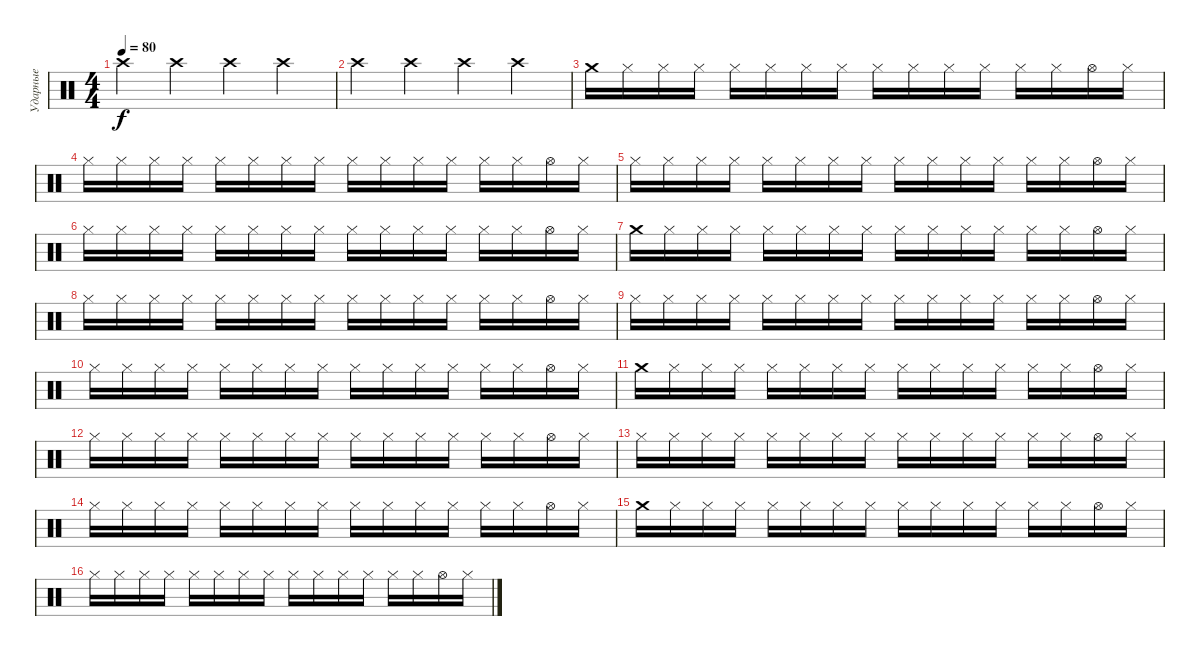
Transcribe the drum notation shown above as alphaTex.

\track ("Ударные" "Ударные") {instrument percussion}
\staff {score}
\articulation defaults
\ts (4 4)
\tempo 80
\clef neutral
\ks c "Crash high (hit)".4{dy f} "Crash high (hit)".4 "Crash high (hit)".4 "Crash high (hit)".4
|
"Crash high (hit)".4 "Crash high (hit)".4 "Crash high (hit)".4 "Crash high (hit)".4 |
"Crash medium (hit)".16 "Hi-Hat (closed)".16 "Hi-Hat (closed)".16 "Hi-Hat (closed)".16 "Hi-Hat (closed)".16 "Hi-Hat (closed)".16 "Hi-Hat (closed)".16 "Hi-Hat (closed)".16 "Hi-Hat (closed)".16 "Hi-Hat (closed)".16 "Hi-Hat (closed)".16 "Hi-Hat (closed)".16 "Hi-Hat (closed)".16 "Hi-Hat (closed)".16 "Hi-Hat (open)".16 "Hi-Hat (closed)".16 |
"Hi-Hat (closed)".16 "Hi-Hat (closed)".16 "Hi-Hat (closed)".16 "Hi-Hat (closed)".16 "Hi-Hat (closed)".16 "Hi-Hat (closed)".16 "Hi-Hat (closed)".16 "Hi-Hat (closed)".16 "Hi-Hat (closed)".16 "Hi-Hat (closed)".16 "Hi-Hat (closed)".16 "Hi-Hat (closed)".16 "Hi-Hat (closed)".16 "Hi-Hat (closed)".16 "Hi-Hat (open)".16 "Hi-Hat (closed)".16 |
"Hi-Hat (closed)".16 "Hi-Hat (closed)".16 "Hi-Hat (closed)".16 "Hi-Hat (closed)".16 "Hi-Hat (closed)".16 "Hi-Hat (closed)".16 "Hi-Hat (closed)".16 "Hi-Hat (closed)".16 "Hi-Hat (closed)".16 "Hi-Hat (closed)".16 "Hi-Hat (closed)".16 "Hi-Hat (closed)".16 "Hi-Hat (closed)".16 "Hi-Hat (closed)".16 "Hi-Hat (open)".16 "Hi-Hat (closed)".16 |
"Hi-Hat (closed)".16 "Hi-Hat (closed)".16 "Hi-Hat (closed)".16 "Hi-Hat (closed)".16 "Hi-Hat (closed)".16 "Hi-Hat (closed)".16 "Hi-Hat (closed)".16 "Hi-Hat (closed)".16 "Hi-Hat (closed)".16 "Hi-Hat (closed)".16 "Hi-Hat (closed)".16 "Hi-Hat (closed)".16 "Hi-Hat (closed)".16 "Hi-Hat (closed)".16 "Hi-Hat (open)".16 "Hi-Hat (closed)".16 |
"Crash medium (hit)".16 "Hi-Hat (closed)".16 "Hi-Hat (closed)".16 "Hi-Hat (closed)".16 "Hi-Hat (closed)".16 "Hi-Hat (closed)".16 "Hi-Hat (closed)".16 "Hi-Hat (closed)".16 "Hi-Hat (closed)".16 "Hi-Hat (closed)".16 "Hi-Hat (closed)".16 "Hi-Hat (closed)".16 "Hi-Hat (closed)".16 "Hi-Hat (closed)".16 "Hi-Hat (open)".16 "Hi-Hat (closed)".16 |
"Hi-Hat (closed)".16 "Hi-Hat (closed)".16 "Hi-Hat (closed)".16 "Hi-Hat (closed)".16 "Hi-Hat (closed)".16 "Hi-Hat (closed)".16 "Hi-Hat (closed)".16 "Hi-Hat (closed)".16 "Hi-Hat (closed)".16 "Hi-Hat (closed)".16 "Hi-Hat (closed)".16 "Hi-Hat (closed)".16 "Hi-Hat (closed)".16 "Hi-Hat (closed)".16 "Hi-Hat (open)".16 "Hi-Hat (closed)".16 |
"Hi-Hat (closed)".16 "Hi-Hat (closed)".16 "Hi-Hat (closed)".16 "Hi-Hat (closed)".16 "Hi-Hat (closed)".16 "Hi-Hat (closed)".16 "Hi-Hat (closed)".16 "Hi-Hat (closed)".16 "Hi-Hat (closed)".16 "Hi-Hat (closed)".16 "Hi-Hat (closed)".16 "Hi-Hat (closed)".16 "Hi-Hat (closed)".16 "Hi-Hat (closed)".16 "Hi-Hat (open)".16 "Hi-Hat (closed)".16 |
"Hi-Hat (closed)".16 "Hi-Hat (closed)".16 "Hi-Hat (closed)".16 "Hi-Hat (closed)".16 "Hi-Hat (closed)".16 "Hi-Hat (closed)".16 "Hi-Hat (closed)".16 "Hi-Hat (closed)".16 "Hi-Hat (closed)".16 "Hi-Hat (closed)".16 "Hi-Hat (closed)".16 "Hi-Hat (closed)".16 "Hi-Hat (closed)".16 "Hi-Hat (closed)".16 "Hi-Hat (open)".16 "Hi-Hat (closed)".16 |
"Crash medium (hit)".16 "Hi-Hat (closed)".16 "Hi-Hat (closed)".16 "Hi-Hat (closed)".16 "Hi-Hat (closed)".16 "Hi-Hat (closed)".16 "Hi-Hat (closed)".16 "Hi-Hat (closed)".16 "Hi-Hat (closed)".16 "Hi-Hat (closed)".16 "Hi-Hat (closed)".16 "Hi-Hat (closed)".16 "Hi-Hat (closed)".16 "Hi-Hat (closed)".16 "Hi-Hat (open)".16 "Hi-Hat (closed)".16 |
"Hi-Hat (closed)".16 "Hi-Hat (closed)".16 "Hi-Hat (closed)".16 "Hi-Hat (closed)".16 "Hi-Hat (closed)".16 "Hi-Hat (closed)".16 "Hi-Hat (closed)".16 "Hi-Hat (closed)".16 "Hi-Hat (closed)".16 "Hi-Hat (closed)".16 "Hi-Hat (closed)".16 "Hi-Hat (closed)".16 "Hi-Hat (closed)".16 "Hi-Hat (closed)".16 "Hi-Hat (open)".16 "Hi-Hat (closed)".16 |
"Hi-Hat (closed)".16 "Hi-Hat (closed)".16 "Hi-Hat (closed)".16 "Hi-Hat (closed)".16 "Hi-Hat (closed)".16 "Hi-Hat (closed)".16 "Hi-Hat (closed)".16 "Hi-Hat (closed)".16 "Hi-Hat (closed)".16 "Hi-Hat (closed)".16 "Hi-Hat (closed)".16 "Hi-Hat (closed)".16 "Hi-Hat (closed)".16 "Hi-Hat (closed)".16 "Hi-Hat (open)".16 "Hi-Hat (closed)".16 |
"Hi-Hat (closed)".16 "Hi-Hat (closed)".16 "Hi-Hat (closed)".16 "Hi-Hat (closed)".16 "Hi-Hat (closed)".16 "Hi-Hat (closed)".16 "Hi-Hat (closed)".16 "Hi-Hat (closed)".16 "Hi-Hat (closed)".16 "Hi-Hat (closed)".16 "Hi-Hat (closed)".16 "Hi-Hat (closed)".16 "Hi-Hat (closed)".16 "Hi-Hat (closed)".16 "Hi-Hat (open)".16 "Hi-Hat (closed)".16 |
"Crash medium (hit)".16 "Hi-Hat (closed)".16 "Hi-Hat (closed)".16 "Hi-Hat (closed)".16 "Hi-Hat (closed)".16 "Hi-Hat (closed)".16 "Hi-Hat (closed)".16 "Hi-Hat (closed)".16 "Hi-Hat (closed)".16 "Hi-Hat (closed)".16 "Hi-Hat (closed)".16 "Hi-Hat (closed)".16 "Hi-Hat (closed)".16 "Hi-Hat (closed)".16 "Hi-Hat (open)".16 "Hi-Hat (closed)".16 |
"Hi-Hat (closed)".16 "Hi-Hat (closed)".16 "Hi-Hat (closed)".16 "Hi-Hat (closed)".16 "Hi-Hat (closed)".16 "Hi-Hat (closed)".16 "Hi-Hat (closed)".16 "Hi-Hat (closed)".16 "Hi-Hat (closed)".16 "Hi-Hat (closed)".16 "Hi-Hat (closed)".16 "Hi-Hat (closed)".16 "Hi-Hat (closed)".16 "Hi-Hat (closed)".16 "Hi-Hat (open)".16 "Hi-Hat (closed)".16
